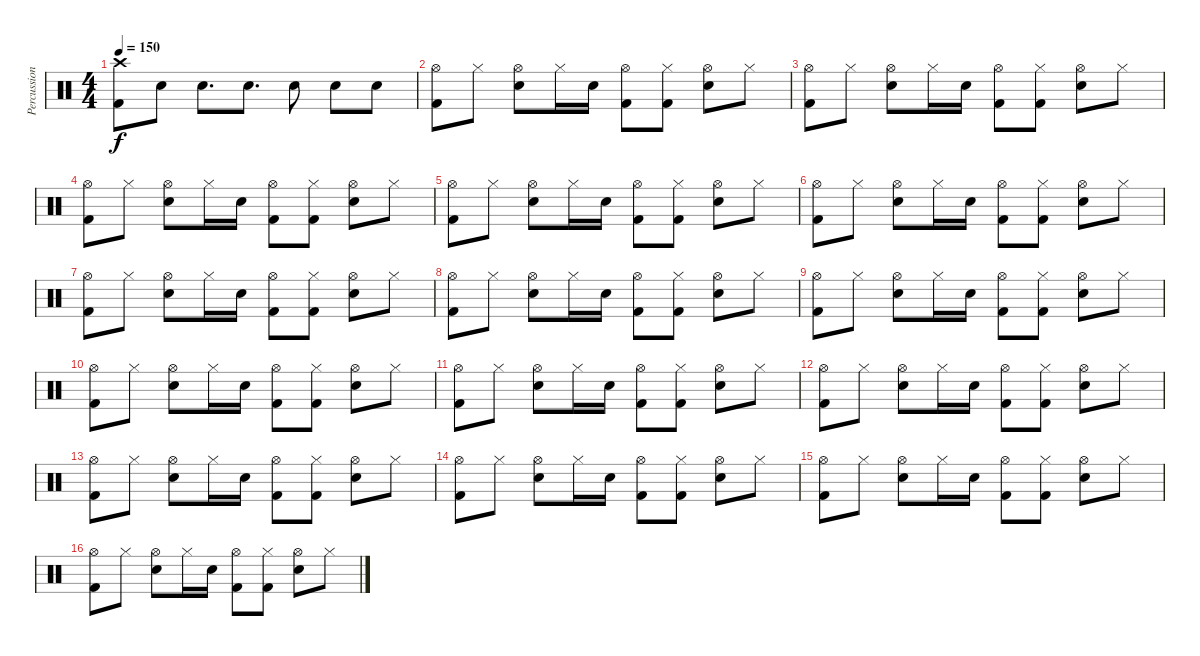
\track ("Percussion" "Percussion") {instrument percussion}
\staff {score}
\articulation defaults
\ts (4 4)
\tempo 150
\clef neutral
\ks c
("Crash high (hit)" "Kick (hit) 2").8{dy f} "Electric Snare (hit)".8 "Electric Snare (hit)".8{d} "Electric Snare (hit)".8{d} "Electric Snare (hit)".8 "Electric Snare (hit)".8 "Electric Snare (hit)".8 |
("Hi-Hat (open)" "Kick (hit) 2").8 "Hi-Hat (closed)".8 ("Hi-Hat (open)" "Electric Snare (hit)").8 "Hi-Hat (closed)".16 "Electric Snare (hit)".16 ("Hi-Hat (open)" "Kick (hit) 2").8 ("Hi-Hat (closed)" "Kick (hit) 2").8 ("Hi-Hat (open)" "Electric Snare (hit)").8 "Hi-Hat (closed)".8 |
("Hi-Hat (open)" "Kick (hit) 2").8 "Hi-Hat (closed)".8 ("Hi-Hat (open)" "Electric Snare (hit)").8 "Hi-Hat (closed)".16 "Electric Snare (hit)".16 ("Hi-Hat (open)" "Kick (hit) 2").8 ("Hi-Hat (closed)" "Kick (hit) 2").8 ("Hi-Hat (open)" "Electric Snare (hit)").8 "Hi-Hat (closed)".8 |
("Hi-Hat (open)" "Kick (hit) 2").8 "Hi-Hat (closed)".8 ("Hi-Hat (open)" "Electric Snare (hit)").8 "Hi-Hat (closed)".16 "Electric Snare (hit)".16 ("Hi-Hat (open)" "Kick (hit) 2").8 ("Hi-Hat (closed)" "Kick (hit) 2").8 ("Hi-Hat (open)" "Electric Snare (hit)").8 "Hi-Hat (closed)".8 |
("Hi-Hat (open)" "Kick (hit) 2").8 "Hi-Hat (closed)".8 ("Hi-Hat (open)" "Electric Snare (hit)").8 "Hi-Hat (closed)".16 "Electric Snare (hit)".16 ("Hi-Hat (open)" "Kick (hit) 2").8 ("Hi-Hat (closed)" "Kick (hit) 2").8 ("Hi-Hat (open)" "Electric Snare (hit)").8 "Hi-Hat (closed)".8 |
("Hi-Hat (open)" "Kick (hit) 2").8 "Hi-Hat (closed)".8 ("Hi-Hat (open)" "Electric Snare (hit)").8 "Hi-Hat (closed)".16 "Electric Snare (hit)".16 ("Hi-Hat (open)" "Kick (hit) 2").8 ("Hi-Hat (closed)" "Kick (hit) 2").8 ("Hi-Hat (open)" "Electric Snare (hit)").8 "Hi-Hat (closed)".8 |
("Hi-Hat (open)" "Kick (hit) 2").8 "Hi-Hat (closed)".8 ("Hi-Hat (open)" "Electric Snare (hit)").8 "Hi-Hat (closed)".16 "Electric Snare (hit)".16 ("Hi-Hat (open)" "Kick (hit) 2").8 ("Hi-Hat (closed)" "Kick (hit) 2").8 ("Hi-Hat (open)" "Electric Snare (hit)").8 "Hi-Hat (closed)".8 |
("Hi-Hat (open)" "Kick (hit) 2").8 "Hi-Hat (closed)".8 ("Hi-Hat (open)" "Electric Snare (hit)").8 "Hi-Hat (closed)".16 "Electric Snare (hit)".16 ("Hi-Hat (open)" "Kick (hit) 2").8 ("Hi-Hat (closed)" "Kick (hit) 2").8 ("Hi-Hat (open)" "Electric Snare (hit)").8 "Hi-Hat (closed)".8 |
("Hi-Hat (open)" "Kick (hit) 2").8 "Hi-Hat (closed)".8 ("Hi-Hat (open)" "Electric Snare (hit)").8 "Hi-Hat (closed)".16 "Electric Snare (hit)".16 ("Hi-Hat (open)" "Kick (hit) 2").8 ("Hi-Hat (closed)" "Kick (hit) 2").8 ("Hi-Hat (open)" "Electric Snare (hit)").8 "Hi-Hat (closed)".8 |
("Hi-Hat (open)" "Kick (hit) 2").8 "Hi-Hat (closed)".8 ("Hi-Hat (open)" "Electric Snare (hit)").8 "Hi-Hat (closed)".16 "Electric Snare (hit)".16 ("Hi-Hat (open)" "Kick (hit) 2").8 ("Hi-Hat (closed)" "Kick (hit) 2").8 ("Hi-Hat (open)" "Electric Snare (hit)").8 "Hi-Hat (closed)".8 |
("Hi-Hat (open)" "Kick (hit) 2").8 "Hi-Hat (closed)".8 ("Hi-Hat (open)" "Electric Snare (hit)").8 "Hi-Hat (closed)".16 "Electric Snare (hit)".16 ("Hi-Hat (open)" "Kick (hit) 2").8 ("Hi-Hat (closed)" "Kick (hit) 2").8 ("Hi-Hat (open)" "Electric Snare (hit)").8 "Hi-Hat (closed)".8 |
("Hi-Hat (open)" "Kick (hit) 2").8 "Hi-Hat (closed)".8 ("Hi-Hat (open)" "Electric Snare (hit)").8 "Hi-Hat (closed)".16 "Electric Snare (hit)".16 ("Hi-Hat (open)" "Kick (hit) 2").8 ("Hi-Hat (closed)" "Kick (hit) 2").8 ("Hi-Hat (open)" "Electric Snare (hit)").8 "Hi-Hat (closed)".8 |
("Hi-Hat (open)" "Kick (hit) 2").8 "Hi-Hat (closed)".8 ("Hi-Hat (open)" "Electric Snare (hit)").8 "Hi-Hat (closed)".16 "Electric Snare (hit)".16 ("Hi-Hat (open)" "Kick (hit) 2").8 ("Hi-Hat (closed)" "Kick (hit) 2").8 ("Hi-Hat (open)" "Electric Snare (hit)").8 "Hi-Hat (closed)".8 |
("Hi-Hat (open)" "Kick (hit) 2").8 "Hi-Hat (closed)".8 ("Hi-Hat (open)" "Electric Snare (hit)").8 "Hi-Hat (closed)".16 "Electric Snare (hit)".16 ("Hi-Hat (open)" "Kick (hit) 2").8 ("Hi-Hat (closed)" "Kick (hit) 2").8 ("Hi-Hat (open)" "Electric Snare (hit)").8 "Hi-Hat (closed)".8 |
("Hi-Hat (open)" "Kick (hit) 2").8 "Hi-Hat (closed)".8 ("Hi-Hat (open)" "Electric Snare (hit)").8 "Hi-Hat (closed)".16 "Electric Snare (hit)".16 ("Hi-Hat (open)" "Kick (hit) 2").8 ("Hi-Hat (closed)" "Kick (hit) 2").8 ("Hi-Hat (open)" "Electric Snare (hit)").8 "Hi-Hat (closed)".8 |
("Hi-Hat (open)" "Kick (hit) 2").8 "Hi-Hat (closed)".8 ("Hi-Hat (open)" "Electric Snare (hit)").8 "Hi-Hat (closed)".16 "Electric Snare (hit)".16 ("Hi-Hat (open)" "Kick (hit) 2").8 ("Hi-Hat (closed)" "Kick (hit) 2").8 ("Hi-Hat (open)" "Electric Snare (hit)").8 "Hi-Hat (closed)".8
